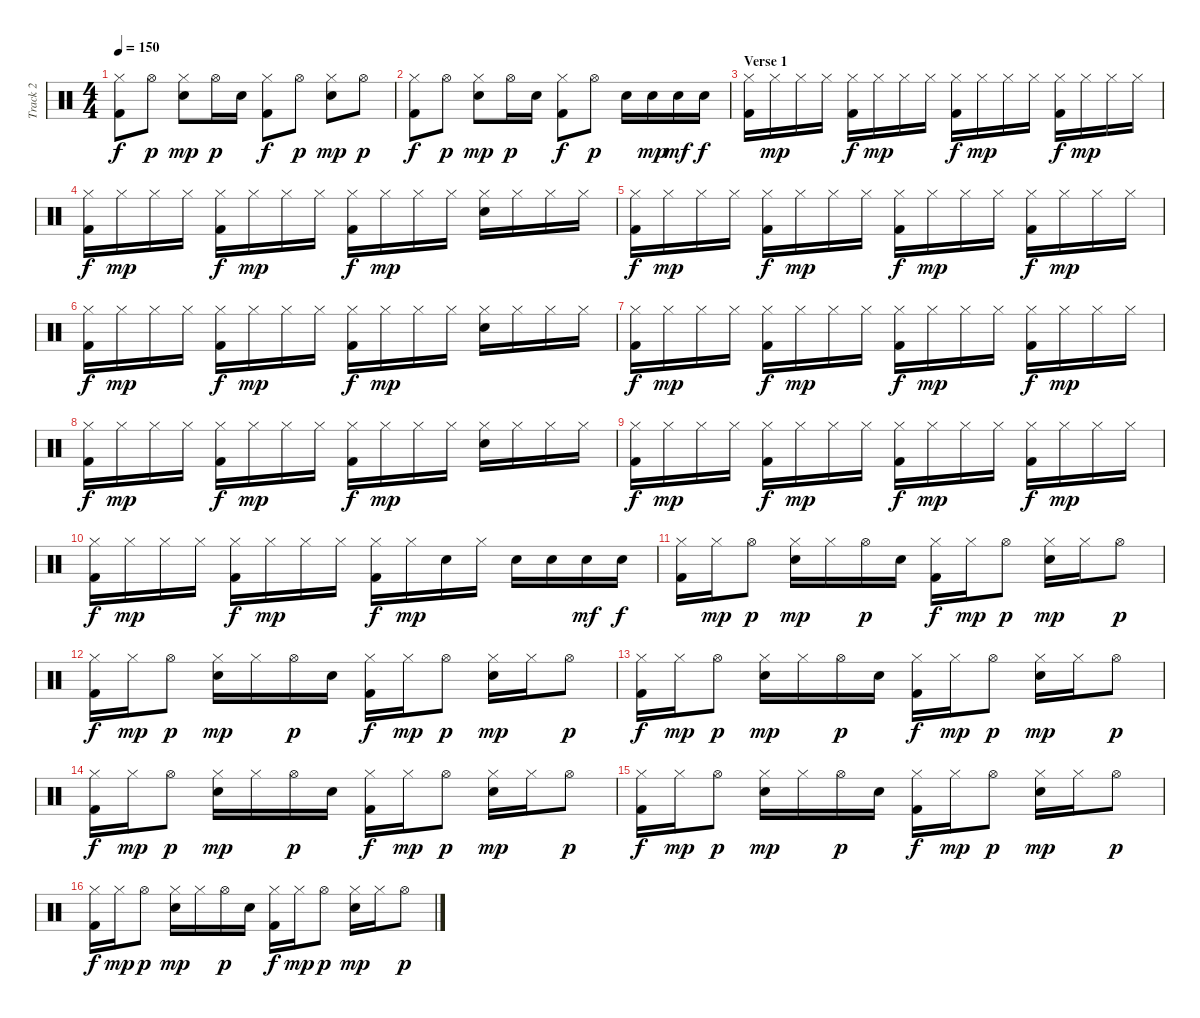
\track ("Track 2" "Track 2") {instrument percussion}
\staff {score}
\articulation defaults
\ts (4 4)
\tempo 150
\clef neutral
\ks c
("Hi-Hat (closed)" "Kick (hit) 2").8{dy f} "Hi-Hat (open)".8{dy p} ("Hi-Hat (closed)" "Electric Snare (hit)").8{dy mp} "Hi-Hat (open)".16{dy p} "Electric Snare (hit)".16 ("Hi-Hat (closed)" "Kick (hit) 2").8{dy f} "Hi-Hat (open)".8{dy p} ("Hi-Hat (closed)" "Electric Snare (hit)").8{dy mp} "Hi-Hat (open)".8{dy p} |
("Hi-Hat (closed)" "Kick (hit) 2").8{dy f} "Hi-Hat (open)".8{dy p} ("Hi-Hat (closed)" "Electric Snare (hit)").8{dy mp} "Hi-Hat (open)".16{dy p} "Electric Snare (hit)".16 ("Hi-Hat (closed)" "Kick (hit) 2").8{dy f} "Hi-Hat (open)".8{dy p} "Electric Snare (hit)".16 "Electric Snare (hit)".16{dy mp} "Electric Snare (hit)".16{dy mf} "Electric Snare (hit)".16{dy f} |
\section ("" "Verse 1")
("Hi-Hat (closed)" "Kick (hit) 2").16 "Hi-Hat (closed)".16{dy mp} "Hi-Hat (closed)".16 "Hi-Hat (closed)".16 ("Hi-Hat (closed)" "Kick (hit) 2").16{dy f} "Hi-Hat (closed)".16{dy mp} "Hi-Hat (closed)".16 "Hi-Hat (closed)".16 ("Hi-Hat (closed)" "Kick (hit) 2").16{dy f} "Hi-Hat (closed)".16{dy mp} "Hi-Hat (closed)".16 "Hi-Hat (closed)".16 ("Hi-Hat (closed)" "Kick (hit) 2").16{dy f} "Hi-Hat (closed)".16{dy mp} "Hi-Hat (closed)".16 "Hi-Hat (closed)".16 |
("Hi-Hat (closed)" "Kick (hit) 2").16{dy f} "Hi-Hat (closed)".16{dy mp} "Hi-Hat (closed)".16 "Hi-Hat (closed)".16 ("Hi-Hat (closed)" "Kick (hit) 2").16{dy f} "Hi-Hat (closed)".16{dy mp} "Hi-Hat (closed)".16 "Hi-Hat (closed)".16 ("Hi-Hat (closed)" "Kick (hit) 2").16{dy f} "Hi-Hat (closed)".16{dy mp} "Hi-Hat (closed)".16 "Hi-Hat (closed)".16 ("Hi-Hat (closed)" "Electric Snare (hit)").16 "Hi-Hat (closed)".16 "Hi-Hat (closed)".16 "Hi-Hat (closed)".16 |
("Hi-Hat (closed)" "Kick (hit) 2").16{dy f} "Hi-Hat (closed)".16{dy mp} "Hi-Hat (closed)".16 "Hi-Hat (closed)".16 ("Hi-Hat (closed)" "Kick (hit) 2").16{dy f} "Hi-Hat (closed)".16{dy mp} "Hi-Hat (closed)".16 "Hi-Hat (closed)".16 ("Hi-Hat (closed)" "Kick (hit) 2").16{dy f} "Hi-Hat (closed)".16{dy mp} "Hi-Hat (closed)".16 "Hi-Hat (closed)".16 ("Hi-Hat (closed)" "Kick (hit) 2").16{dy f} "Hi-Hat (closed)".16{dy mp} "Hi-Hat (closed)".16 "Hi-Hat (closed)".16 |
("Hi-Hat (closed)" "Kick (hit) 2").16{dy f} "Hi-Hat (closed)".16{dy mp} "Hi-Hat (closed)".16 "Hi-Hat (closed)".16 ("Hi-Hat (closed)" "Kick (hit) 2").16{dy f} "Hi-Hat (closed)".16{dy mp} "Hi-Hat (closed)".16 "Hi-Hat (closed)".16 ("Hi-Hat (closed)" "Kick (hit) 2").16{dy f} "Hi-Hat (closed)".16{dy mp} "Hi-Hat (closed)".16 "Hi-Hat (closed)".16 ("Hi-Hat (closed)" "Electric Snare (hit)").16 "Hi-Hat (closed)".16 "Hi-Hat (closed)".16 "Hi-Hat (closed)".16 |
("Hi-Hat (closed)" "Kick (hit) 2").16{dy f} "Hi-Hat (closed)".16{dy mp} "Hi-Hat (closed)".16 "Hi-Hat (closed)".16 ("Hi-Hat (closed)" "Kick (hit) 2").16{dy f} "Hi-Hat (closed)".16{dy mp} "Hi-Hat (closed)".16 "Hi-Hat (closed)".16 ("Hi-Hat (closed)" "Kick (hit) 2").16{dy f} "Hi-Hat (closed)".16{dy mp} "Hi-Hat (closed)".16 "Hi-Hat (closed)".16 ("Hi-Hat (closed)" "Kick (hit) 2").16{dy f} "Hi-Hat (closed)".16{dy mp} "Hi-Hat (closed)".16 "Hi-Hat (closed)".16 |
("Hi-Hat (closed)" "Kick (hit) 2").16{dy f} "Hi-Hat (closed)".16{dy mp} "Hi-Hat (closed)".16 "Hi-Hat (closed)".16 ("Hi-Hat (closed)" "Kick (hit) 2").16{dy f} "Hi-Hat (closed)".16{dy mp} "Hi-Hat (closed)".16 "Hi-Hat (closed)".16 ("Hi-Hat (closed)" "Kick (hit) 2").16{dy f} "Hi-Hat (closed)".16{dy mp} "Hi-Hat (closed)".16 "Hi-Hat (closed)".16 ("Hi-Hat (closed)" "Electric Snare (hit)").16 "Hi-Hat (closed)".16 "Hi-Hat (closed)".16 "Hi-Hat (closed)".16 |
("Hi-Hat (closed)" "Kick (hit) 2").16{dy f} "Hi-Hat (closed)".16{dy mp} "Hi-Hat (closed)".16 "Hi-Hat (closed)".16 ("Hi-Hat (closed)" "Kick (hit) 2").16{dy f} "Hi-Hat (closed)".16{dy mp} "Hi-Hat (closed)".16 "Hi-Hat (closed)".16 ("Hi-Hat (closed)" "Kick (hit) 2").16{dy f} "Hi-Hat (closed)".16{dy mp} "Hi-Hat (closed)".16 "Hi-Hat (closed)".16 ("Hi-Hat (closed)" "Kick (hit) 2").16{dy f} "Hi-Hat (closed)".16{dy mp} "Hi-Hat (closed)".16 "Hi-Hat (closed)".16 |
("Hi-Hat (closed)" "Kick (hit) 2").16{dy f} "Hi-Hat (closed)".16{dy mp} "Hi-Hat (closed)".16 "Hi-Hat (closed)".16 ("Hi-Hat (closed)" "Kick (hit) 2").16{dy f} "Hi-Hat (closed)".16{dy mp} "Hi-Hat (closed)".16 "Hi-Hat (closed)".16 ("Hi-Hat (closed)" "Kick (hit) 2").16{dy f} "Hi-Hat (closed)".16{dy mp} "Electric Snare (hit)".16 "Hi-Hat (closed)".16 "Electric Snare (hit)".16 "Electric Snare (hit)".16 "Electric Snare (hit)".16{dy mf} "Electric Snare (hit)".16{dy f} |
("Hi-Hat (closed)" "Kick (hit) 2").16 "Hi-Hat (closed)".16{dy mp} "Hi-Hat (open)".8{dy p} ("Hi-Hat (closed)" "Electric Snare (hit)").16{dy mp} "Hi-Hat (closed)".16 "Hi-Hat (open)".16{dy p} "Electric Snare (hit)".16 ("Hi-Hat (closed)" "Kick (hit) 2").16{dy f} "Hi-Hat (closed)".16{dy mp} "Hi-Hat (open)".8{dy p} ("Hi-Hat (closed)" "Electric Snare (hit)").16{dy mp} "Hi-Hat (closed)".16 "Hi-Hat (open)".8{dy p} |
("Hi-Hat (closed)" "Kick (hit) 2").16{dy f} "Hi-Hat (closed)".16{dy mp} "Hi-Hat (open)".8{dy p} ("Hi-Hat (closed)" "Electric Snare (hit)").16{dy mp} "Hi-Hat (closed)".16 "Hi-Hat (open)".16{dy p} "Electric Snare (hit)".16 ("Hi-Hat (closed)" "Kick (hit) 2").16{dy f} "Hi-Hat (closed)".16{dy mp} "Hi-Hat (open)".8{dy p} ("Hi-Hat (closed)" "Electric Snare (hit)").16{dy mp} "Hi-Hat (closed)".16 "Hi-Hat (open)".8{dy p} |
("Hi-Hat (closed)" "Kick (hit) 2").16{dy f} "Hi-Hat (closed)".16{dy mp} "Hi-Hat (open)".8{dy p} ("Hi-Hat (closed)" "Electric Snare (hit)").16{dy mp} "Hi-Hat (closed)".16 "Hi-Hat (open)".16{dy p} "Electric Snare (hit)".16 ("Hi-Hat (closed)" "Kick (hit) 2").16{dy f} "Hi-Hat (closed)".16{dy mp} "Hi-Hat (open)".8{dy p} ("Hi-Hat (closed)" "Electric Snare (hit)").16{dy mp} "Hi-Hat (closed)".16 "Hi-Hat (open)".8{dy p} |
("Hi-Hat (closed)" "Kick (hit) 2").16{dy f} "Hi-Hat (closed)".16{dy mp} "Hi-Hat (open)".8{dy p} ("Hi-Hat (closed)" "Electric Snare (hit)").16{dy mp} "Hi-Hat (closed)".16 "Hi-Hat (open)".16{dy p} "Electric Snare (hit)".16 ("Hi-Hat (closed)" "Kick (hit) 2").16{dy f} "Hi-Hat (closed)".16{dy mp} "Hi-Hat (open)".8{dy p} ("Hi-Hat (closed)" "Electric Snare (hit)").16{dy mp} "Hi-Hat (closed)".16 "Hi-Hat (open)".8{dy p} |
("Hi-Hat (closed)" "Kick (hit) 2").16{dy f} "Hi-Hat (closed)".16{dy mp} "Hi-Hat (open)".8{dy p} ("Hi-Hat (closed)" "Electric Snare (hit)").16{dy mp} "Hi-Hat (closed)".16 "Hi-Hat (open)".16{dy p} "Electric Snare (hit)".16 ("Hi-Hat (closed)" "Kick (hit) 2").16{dy f} "Hi-Hat (closed)".16{dy mp} "Hi-Hat (open)".8{dy p} ("Hi-Hat (closed)" "Electric Snare (hit)").16{dy mp} "Hi-Hat (closed)".16 "Hi-Hat (open)".8{dy p} |
("Hi-Hat (closed)" "Kick (hit) 2").16{dy f} "Hi-Hat (closed)".16{dy mp} "Hi-Hat (open)".8{dy p} ("Hi-Hat (closed)" "Electric Snare (hit)").16{dy mp} "Hi-Hat (closed)".16 "Hi-Hat (open)".16{dy p} "Electric Snare (hit)".16 ("Hi-Hat (closed)" "Kick (hit) 2").16{dy f} "Hi-Hat (closed)".16{dy mp} "Hi-Hat (open)".8{dy p} ("Hi-Hat (closed)" "Electric Snare (hit)").16{dy mp} "Hi-Hat (closed)".16 "Hi-Hat (open)".8{dy p}
